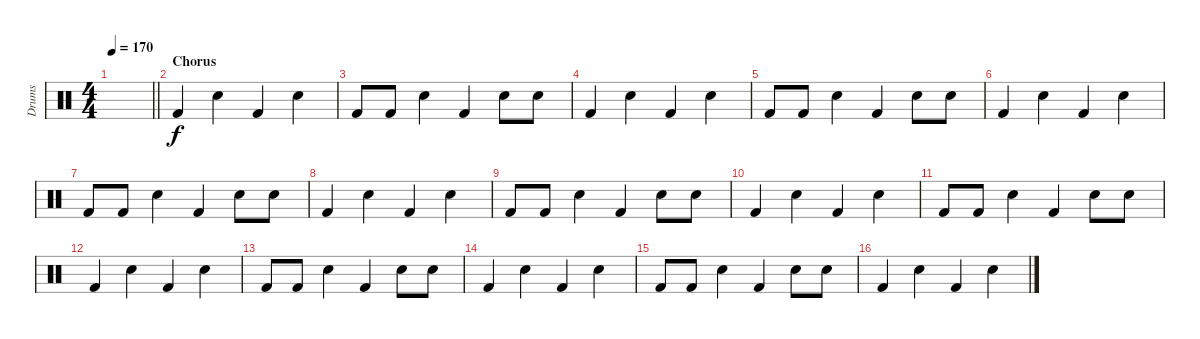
\track ("Drums" "Drums") {instrument percussion}
\staff {score}
\articulation defaults
\ts (4 4)
\tempo 170
\clef neutral
\barLineRight lightlight
\ks c
|
\section ("" "Chorus")
"Kick (hit) 2".4 "Hand Clap (hit)".4 "Kick (hit) 2".4 "Hand Clap (hit)".4 |
"Kick (hit) 2".8 "Kick (hit) 2".8 "Hand Clap (hit)".4 "Kick (hit) 2".4 "Hand Clap (hit)".8 "Hand Clap (hit)".8 |
"Kick (hit) 2".4 "Hand Clap (hit)".4 "Kick (hit) 2".4 "Hand Clap (hit)".4 |
"Kick (hit) 2".8 "Kick (hit) 2".8 "Hand Clap (hit)".4 "Kick (hit) 2".4 "Hand Clap (hit)".8 "Hand Clap (hit)".8 |
"Kick (hit) 2".4 "Hand Clap (hit)".4 "Kick (hit) 2".4 "Hand Clap (hit)".4 |
"Kick (hit) 2".8 "Kick (hit) 2".8 "Hand Clap (hit)".4 "Kick (hit) 2".4 "Hand Clap (hit)".8 "Hand Clap (hit)".8 |
"Kick (hit) 2".4 "Hand Clap (hit)".4 "Kick (hit) 2".4 "Hand Clap (hit)".4 |
"Kick (hit) 2".8 "Kick (hit) 2".8 "Hand Clap (hit)".4 "Kick (hit) 2".4 "Hand Clap (hit)".8 "Hand Clap (hit)".8 |
"Kick (hit) 2".4 "Hand Clap (hit)".4 "Kick (hit) 2".4 "Hand Clap (hit)".4 |
"Kick (hit) 2".8 "Kick (hit) 2".8 "Hand Clap (hit)".4 "Kick (hit) 2".4 "Hand Clap (hit)".8 "Hand Clap (hit)".8 |
"Kick (hit) 2".4 "Hand Clap (hit)".4 "Kick (hit) 2".4 "Hand Clap (hit)".4 |
"Kick (hit) 2".8 "Kick (hit) 2".8 "Hand Clap (hit)".4 "Kick (hit) 2".4 "Hand Clap (hit)".8 "Hand Clap (hit)".8 |
"Kick (hit) 2".4 "Hand Clap (hit)".4 "Kick (hit) 2".4 "Hand Clap (hit)".4 |
"Kick (hit) 2".8 "Kick (hit) 2".8 "Hand Clap (hit)".4 "Kick (hit) 2".4 "Hand Clap (hit)".8 "Hand Clap (hit)".8 |
"Kick (hit) 2".4 "Hand Clap (hit)".4 "Kick (hit) 2".4 "Hand Clap (hit)".4
